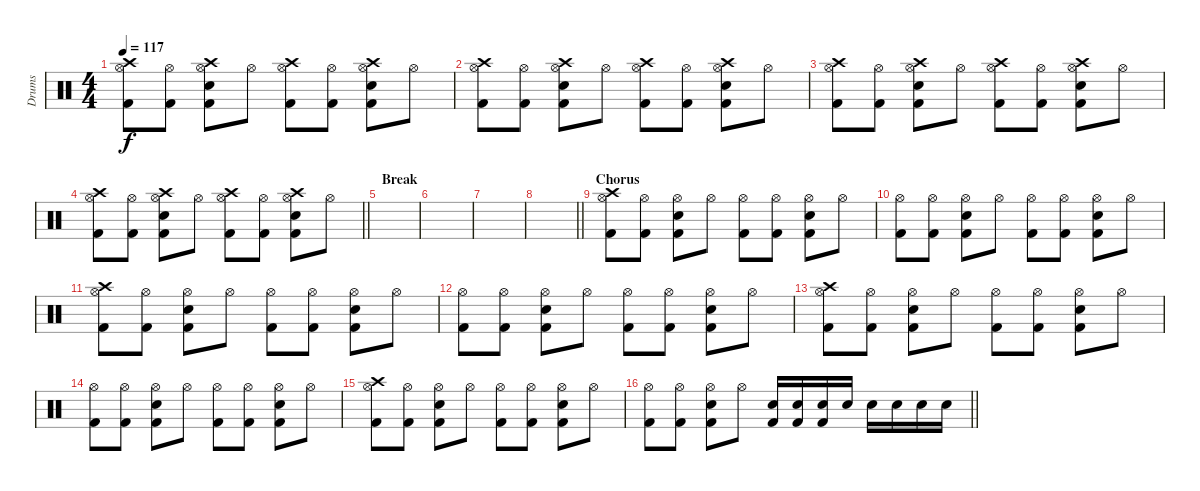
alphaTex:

\track ("Drums" "Drums") {instrument percussion}
\staff {score}
\articulation defaults
\ts (4 4)
\tempo 117
\clef neutral
\ks c
("Kick (hit) 2" "Hi-Hat (open)" "Crash high (hit)").8{dy f} ("Kick (hit) 2" "Hi-Hat (open)").8 ("Kick (hit) 2" "Hi-Hat (open)" "Snare (hit) 2" "Crash high (hit)").8 "Hi-Hat (open)".8 ("Kick (hit) 2" "Hi-Hat (open)" "Crash high (hit)").8 ("Kick (hit) 2" "Hi-Hat (open)").8 ("Kick (hit) 2" "Hi-Hat (open)" "Snare (hit) 2" "Crash high (hit)").8 "Hi-Hat (open)".8 |
("Kick (hit) 2" "Hi-Hat (open)" "Crash high (hit)").8 ("Kick (hit) 2" "Hi-Hat (open)").8 ("Kick (hit) 2" "Hi-Hat (open)" "Snare (hit) 2" "Crash high (hit)").8 "Hi-Hat (open)".8 ("Kick (hit) 2" "Hi-Hat (open)" "Crash high (hit)").8 ("Kick (hit) 2" "Hi-Hat (open)").8 ("Kick (hit) 2" "Hi-Hat (open)" "Snare (hit) 2" "Crash high (hit)").8 "Hi-Hat (open)".8 |
("Kick (hit) 2" "Hi-Hat (open)" "Crash high (hit)").8 ("Kick (hit) 2" "Hi-Hat (open)").8 ("Kick (hit) 2" "Hi-Hat (open)" "Snare (hit) 2" "Crash high (hit)").8 "Hi-Hat (open)".8 ("Kick (hit) 2" "Hi-Hat (open)" "Crash high (hit)").8 ("Kick (hit) 2" "Hi-Hat (open)").8 ("Kick (hit) 2" "Hi-Hat (open)" "Snare (hit) 2" "Crash high (hit)").8 "Hi-Hat (open)".8 |
\barLineRight lightlight
("Kick (hit) 2" "Hi-Hat (open)" "Crash high (hit)").8 ("Kick (hit) 2" "Hi-Hat (open)").8 ("Kick (hit) 2" "Hi-Hat (open)" "Snare (hit) 2" "Crash high (hit)").8 "Hi-Hat (open)".8 ("Kick (hit) 2" "Hi-Hat (open)" "Crash high (hit)").8 ("Kick (hit) 2" "Hi-Hat (open)").8 ("Kick (hit) 2" "Hi-Hat (open)" "Snare (hit) 2" "Crash high (hit)").8 "Hi-Hat (open)".8 |
\section ("" "Break")
|
|
|
\barLineRight lightlight
|
\section ("" "Chorus")
("Kick (hit) 2" "Hi-Hat (open)" "Crash high (hit)").8 ("Kick (hit) 2" "Hi-Hat (open)").8 ("Kick (hit) 2" "Hi-Hat (open)" "Snare (hit) 2").8 "Hi-Hat (open)".8 ("Kick (hit) 2" "Hi-Hat (open)").8 ("Kick (hit) 2" "Hi-Hat (open)").8 ("Kick (hit) 2" "Hi-Hat (open)" "Snare (hit) 2").8 "Hi-Hat (open)".8 |
("Kick (hit) 2" "Hi-Hat (open)").8 ("Kick (hit) 2" "Hi-Hat (open)").8 ("Kick (hit) 2" "Hi-Hat (open)" "Snare (hit) 2").8 "Hi-Hat (open)".8 ("Kick (hit) 2" "Hi-Hat (open)").8 ("Kick (hit) 2" "Hi-Hat (open)").8 ("Kick (hit) 2" "Hi-Hat (open)" "Snare (hit) 2").8 "Hi-Hat (open)".8 |
("Kick (hit) 2" "Hi-Hat (open)" "Crash high (hit)").8 ("Kick (hit) 2" "Hi-Hat (open)").8 ("Kick (hit) 2" "Hi-Hat (open)" "Snare (hit) 2").8 "Hi-Hat (open)".8 ("Kick (hit) 2" "Hi-Hat (open)").8 ("Kick (hit) 2" "Hi-Hat (open)").8 ("Kick (hit) 2" "Hi-Hat (open)" "Snare (hit) 2").8 "Hi-Hat (open)".8 |
("Kick (hit) 2" "Hi-Hat (open)").8 ("Kick (hit) 2" "Hi-Hat (open)").8 ("Kick (hit) 2" "Hi-Hat (open)" "Snare (hit) 2").8 "Hi-Hat (open)".8 ("Kick (hit) 2" "Hi-Hat (open)").8 ("Kick (hit) 2" "Hi-Hat (open)").8 ("Kick (hit) 2" "Hi-Hat (open)" "Snare (hit) 2").8 "Hi-Hat (open)".8 |
("Kick (hit) 2" "Hi-Hat (open)" "Crash high (hit)").8 ("Kick (hit) 2" "Hi-Hat (open)").8 ("Kick (hit) 2" "Hi-Hat (open)" "Snare (hit) 2").8 "Hi-Hat (open)".8 ("Kick (hit) 2" "Hi-Hat (open)").8 ("Kick (hit) 2" "Hi-Hat (open)").8 ("Kick (hit) 2" "Hi-Hat (open)" "Snare (hit) 2").8 "Hi-Hat (open)".8 |
("Kick (hit) 2" "Hi-Hat (open)").8 ("Kick (hit) 2" "Hi-Hat (open)").8 ("Kick (hit) 2" "Hi-Hat (open)" "Snare (hit) 2").8 "Hi-Hat (open)".8 ("Kick (hit) 2" "Hi-Hat (open)").8 ("Kick (hit) 2" "Hi-Hat (open)").8 ("Kick (hit) 2" "Hi-Hat (open)" "Snare (hit) 2").8 "Hi-Hat (open)".8 |
("Kick (hit) 2" "Hi-Hat (open)" "Crash high (hit)").8 ("Kick (hit) 2" "Hi-Hat (open)").8 ("Kick (hit) 2" "Hi-Hat (open)" "Snare (hit) 2").8 "Hi-Hat (open)".8 ("Kick (hit) 2" "Hi-Hat (open)").8 ("Kick (hit) 2" "Hi-Hat (open)").8 ("Kick (hit) 2" "Hi-Hat (open)" "Snare (hit) 2").8 "Hi-Hat (open)".8 |
\barLineRight lightlight
("Kick (hit) 2" "Hi-Hat (open)").8 ("Kick (hit) 2" "Hi-Hat (open)").8 ("Kick (hit) 2" "Hi-Hat (open)" "Snare (hit) 2").8 "Hi-Hat (open)".8 ("Kick (hit) 2" "Snare (hit) 2").16 ("Kick (hit) 2" "Snare (hit) 2").16 ("Kick (hit) 2" "Snare (hit) 2").16 "Snare (hit) 2".16 "Snare (hit) 2".16 "Snare (hit) 2".16 "Snare (hit) 2".16 "Snare (hit) 2".16
